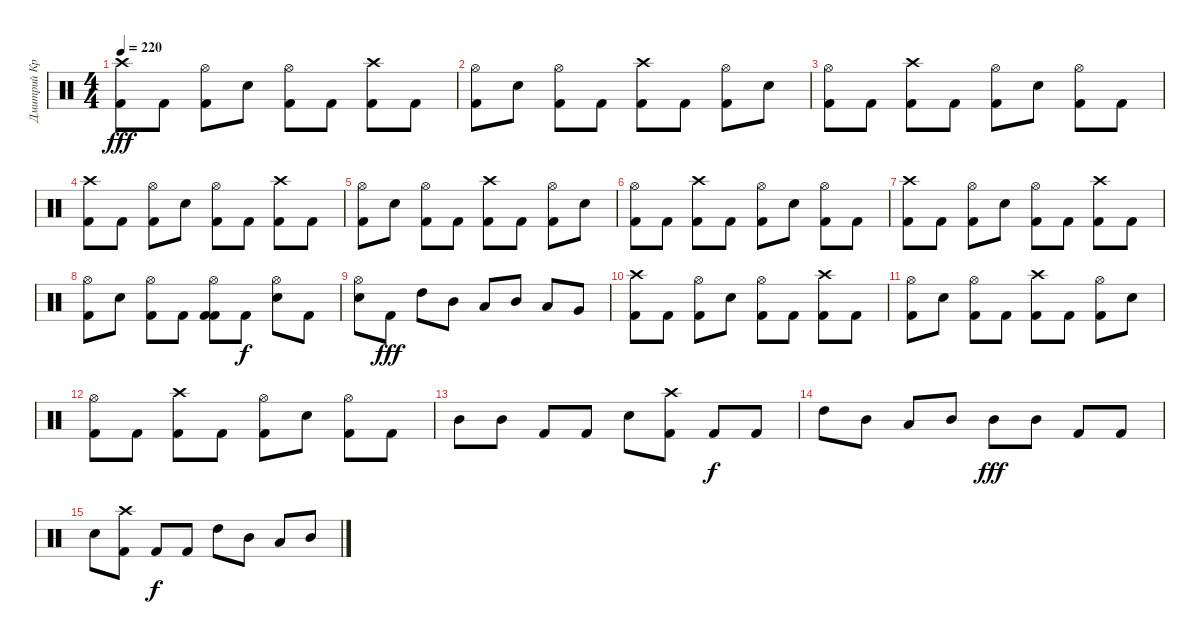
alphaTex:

\track ("Дмитрий Кривенков" "Дмитрий Кр") {instrument percussion}
\staff {score}
\articulation defaults
\ts (4 4)
\tempo 220
\clef neutral
\ks c
("Crash high (hit)" "Kick (hit) 2").8{dy fff} "Kick (hit) 2".8 ("Hi-Hat (open)" "Kick (hit) 2").8 "Electric Snare (hit)".8 ("Hi-Hat (open)" "Kick (hit) 2").8 "Kick (hit) 2".8 ("Crash high (hit)" "Kick (hit) 2").8 "Kick (hit) 2".8 |
("Hi-Hat (open)" "Kick (hit) 2").8 "Electric Snare (hit)".8 ("Hi-Hat (open)" "Kick (hit) 2").8 "Kick (hit) 2".8 ("Crash high (hit)" "Kick (hit) 2").8 "Kick (hit) 2".8 ("Hi-Hat (open)" "Kick (hit) 2").8 "Electric Snare (hit)".8 |
("Hi-Hat (open)" "Kick (hit) 2").8 "Kick (hit) 2".8 ("Crash high (hit)" "Kick (hit) 2").8 "Kick (hit) 2".8 ("Hi-Hat (open)" "Kick (hit) 2").8 "Electric Snare (hit)".8 ("Hi-Hat (open)" "Kick (hit) 2").8 "Kick (hit) 2".8 |
("Crash high (hit)" "Kick (hit) 2").8 "Kick (hit) 2".8 ("Hi-Hat (open)" "Kick (hit) 2").8 "Electric Snare (hit)".8 ("Hi-Hat (open)" "Kick (hit) 2").8 "Kick (hit) 2".8 ("Crash high (hit)" "Kick (hit) 2").8 "Kick (hit) 2".8 |
("Hi-Hat (open)" "Kick (hit) 2").8 "Electric Snare (hit)".8 ("Hi-Hat (open)" "Kick (hit) 2").8 "Kick (hit) 2".8 ("Crash high (hit)" "Kick (hit) 2").8 "Kick (hit) 2".8 ("Hi-Hat (open)" "Kick (hit) 2").8 "Electric Snare (hit)".8 |
("Hi-Hat (open)" "Kick (hit) 2").8 "Kick (hit) 2".8 ("Crash high (hit)" "Kick (hit) 2").8 "Kick (hit) 2".8 ("Hi-Hat (open)" "Kick (hit) 2").8 "Electric Snare (hit)".8 ("Hi-Hat (open)" "Kick (hit) 2").8 "Kick (hit) 2".8 |
("Crash high (hit)" "Kick (hit) 2").8 "Kick (hit) 2".8 ("Hi-Hat (open)" "Kick (hit) 2").8 "Electric Snare (hit)".8 ("Hi-Hat (open)" "Kick (hit) 2").8 "Kick (hit) 2".8 ("Crash high (hit)" "Kick (hit) 2").8 "Kick (hit) 2".8 |
("Hi-Hat (open)" "Kick (hit) 2").8 "Electric Snare (hit)".8 ("Hi-Hat (open)" "Kick (hit) 2").8 "Kick (hit) 2".8 ("Kick (hit) 2" "Hi-Hat (open)" "Kick (hit) 2").8 "Kick (hit) 2".8{dy f} ("Electric Snare (hit)" "Hi-Hat (open)").8 "Kick (hit) 2".8 |
("Electric Snare (hit)" "Hi-Hat (open)").8 "Kick (hit) 2".8{dy fff} "High Tom (hit)".8 "Mid Tom (hit)".8 "Low Tom (hit)".8 "Mid Tom (hit)".8 "Low Tom (hit)".8 "Very Low Tom (hit)".8 |
("Crash high (hit)" "Kick (hit) 2").8 "Kick (hit) 2".8 ("Hi-Hat (open)" "Kick (hit) 2").8 "Electric Snare (hit)".8 ("Hi-Hat (open)" "Kick (hit) 2").8 "Kick (hit) 2".8 ("Crash high (hit)" "Kick (hit) 2").8 "Kick (hit) 2".8 |
("Hi-Hat (open)" "Kick (hit) 2").8 "Electric Snare (hit)".8 ("Hi-Hat (open)" "Kick (hit) 2").8 "Kick (hit) 2".8 ("Crash high (hit)" "Kick (hit) 2").8 "Kick (hit) 2".8 ("Hi-Hat (open)" "Kick (hit) 2").8 "Electric Snare (hit)".8 |
("Hi-Hat (open)" "Kick (hit) 2").8 "Kick (hit) 2".8 ("Crash high (hit)" "Kick (hit) 2").8 "Kick (hit) 2".8 ("Hi-Hat (open)" "Kick (hit) 2").8 "Electric Snare (hit)".8 ("Hi-Hat (open)" "Kick (hit) 2").8 "Kick (hit) 2".8 |
"Mid Tom (hit)".8 "Mid Tom (hit)".8 "Kick (hit) 2".8 "Kick (hit) 2".8 "Electric Snare (hit)".8 ("Crash high (hit)" "Kick (hit) 2").8 "Kick (hit) 2".8{dy f} "Kick (hit) 2".8 |
"High Tom (hit)".8 "Mid Tom (hit)".8 "Low Tom (hit)".8 "Mid Tom (hit)".8 "Mid Tom (hit)".8{dy fff} "Mid Tom (hit)".8 "Kick (hit) 2".8 "Kick (hit) 2".8 |
"Electric Snare (hit)".8 ("Crash high (hit)" "Kick (hit) 2").8 "Kick (hit) 2".8{dy f} "Kick (hit) 2".8 "High Tom (hit)".8 "Mid Tom (hit)".8 "Low Tom (hit)".8 "Mid Tom (hit)".8
